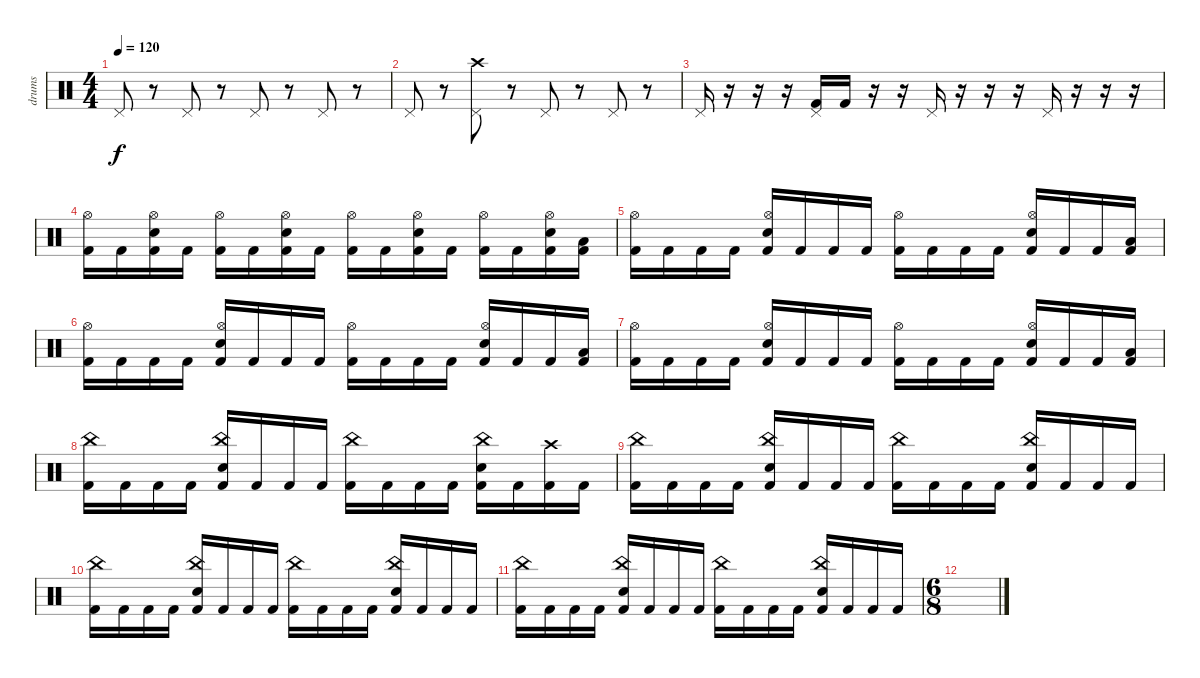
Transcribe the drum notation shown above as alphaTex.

\track ("drums" "drums") {instrument percussion}
\staff {score}
\articulation defaults
\ts (4 4)
\tempo 120
\clef neutral
\ks c "Pedal Hi-Hat (hit)".8{dy f}
r.8 "Pedal Hi-Hat (hit)".8 r.8 "Pedal Hi-Hat (hit)".8 r.8 "Pedal Hi-Hat (hit)".8 r.8 |
"Pedal Hi-Hat (hit)".8 r.8 ("Crash high (hit)" "Pedal Hi-Hat (hit)").8 r.8 "Pedal Hi-Hat (hit)".8 r.8 "Pedal Hi-Hat (hit)".8 r.8 |
"Pedal Hi-Hat (hit)".16 r.16 r.16 r.16 ("Pedal Hi-Hat (hit)" "Kick (hit) 2").16 "Kick (hit) 2".16 r.16 r.16 "Pedal Hi-Hat (hit)".16 r.16 r.16 r.16 "Pedal Hi-Hat (hit)".16 r.16 r.16 r.16 |
("Hi-Hat (open)" "Kick (hit) 2").16 "Kick (hit) 2".16 ("Hi-Hat (open)" "Snare (hit) 2" "Kick (hit) 2").16 "Kick (hit) 2".16 ("Hi-Hat (open)" "Kick (hit) 2").16 "Kick (hit) 2".16 ("Hi-Hat (open)" "Snare (hit) 2" "Kick (hit) 2").16 "Kick (hit) 2".16 ("Hi-Hat (open)" "Kick (hit) 2").16 "Kick (hit) 2".16 ("Hi-Hat (open)" "Snare (hit) 2" "Kick (hit) 2").16 "Kick (hit) 2".16 ("Hi-Hat (open)" "Kick (hit) 2").16 "Kick (hit) 2".16 ("Hi-Hat (open)" "Snare (hit) 2" "Kick (hit) 2").16 ("Low Floor Tom (hit)" "Kick (hit) 2").16 |
("Hi-Hat (open)" "Kick (hit) 2").16 "Kick (hit) 2".16 "Kick (hit) 2".16 "Kick (hit) 2".16 ("Hi-Hat (open)" "Snare (hit) 2" "Kick (hit) 2").16 "Kick (hit) 2".16 "Kick (hit) 2".16 "Kick (hit) 2".16 ("Hi-Hat (open)" "Kick (hit) 2").16 "Kick (hit) 2".16 "Kick (hit) 2".16 "Kick (hit) 2".16 ("Hi-Hat (open)" "Snare (hit) 2" "Kick (hit) 2").16 "Kick (hit) 2".16 "Kick (hit) 2".16 ("Low Floor Tom (hit)" "Kick (hit) 2").16 |
("Hi-Hat (open)" "Kick (hit) 2").16 "Kick (hit) 2".16 "Kick (hit) 2".16 "Kick (hit) 2".16 ("Hi-Hat (open)" "Snare (hit) 2" "Kick (hit) 2").16 "Kick (hit) 2".16 "Kick (hit) 2".16 "Kick (hit) 2".16 ("Hi-Hat (open)" "Kick (hit) 2").16 "Kick (hit) 2".16 "Kick (hit) 2".16 "Kick (hit) 2".16 ("Hi-Hat (open)" "Snare (hit) 2" "Kick (hit) 2").16 "Kick (hit) 2".16 "Kick (hit) 2".16 ("Low Floor Tom (hit)" "Kick (hit) 2").16 |
("Hi-Hat (open)" "Kick (hit) 2").16 "Kick (hit) 2".16 "Kick (hit) 2".16 "Kick (hit) 2".16 ("Hi-Hat (open)" "Snare (hit) 2" "Kick (hit) 2").16 "Kick (hit) 2".16 "Kick (hit) 2".16 "Kick (hit) 2".16 ("Hi-Hat (open)" "Kick (hit) 2").16 "Kick (hit) 2".16 "Kick (hit) 2".16 "Kick (hit) 2".16 ("Hi-Hat (open)" "Snare (hit) 2" "Kick (hit) 2").16 "Kick (hit) 2".16 "Kick (hit) 2".16 ("Low Floor Tom (hit)" "Kick (hit) 2").16 |
("China (hit)" "Kick (hit) 2").16 "Kick (hit) 2".16 "Kick (hit) 2".16 "Kick (hit) 2".16 ("China (hit)" "Electric Snare (hit)" "Kick (hit) 2").16 "Kick (hit) 2".16 "Kick (hit) 2".16 "Kick (hit) 2".16 ("China (hit)" "Kick (hit) 2").16 "Kick (hit) 2".16 "Kick (hit) 2".16 "Kick (hit) 2".16 ("China (hit)" "Electric Snare (hit)" "Kick (hit) 2").16 "Kick (hit) 2".16 ("Crash high (hit)" "Kick (hit) 2").16 "Kick (hit) 2".16 |
("China (hit)" "Kick (hit) 2").16 "Kick (hit) 2".16 "Kick (hit) 2".16 "Kick (hit) 2".16 ("China (hit)" "Electric Snare (hit)" "Kick (hit) 2").16 "Kick (hit) 2".16 "Kick (hit) 2".16 "Kick (hit) 2".16 ("China (hit)" "Kick (hit) 2").16 "Kick (hit) 2".16 "Kick (hit) 2".16 "Kick (hit) 2".16 ("China (hit)" "Electric Snare (hit)" "Kick (hit) 2").16 "Kick (hit) 2".16 "Kick (hit) 2".16 "Kick (hit) 2".16 |
("China (hit)" "Kick (hit) 2").16 "Kick (hit) 2".16 "Kick (hit) 2".16 "Kick (hit) 2".16 ("China (hit)" "Electric Snare (hit)" "Kick (hit) 2").16 "Kick (hit) 2".16 "Kick (hit) 2".16 "Kick (hit) 2".16 ("China (hit)" "Kick (hit) 2").16 "Kick (hit) 2".16 "Kick (hit) 2".16 "Kick (hit) 2".16 ("China (hit)" "Electric Snare (hit)" "Kick (hit) 2").16 "Kick (hit) 2".16 "Kick (hit) 2".16 "Kick (hit) 2".16 |
("China (hit)" "Kick (hit) 2").16 "Kick (hit) 2".16 "Kick (hit) 2".16 "Kick (hit) 2".16 ("China (hit)" "Electric Snare (hit)" "Kick (hit) 2").16 "Kick (hit) 2".16 "Kick (hit) 2".16 "Kick (hit) 2".16 ("China (hit)" "Kick (hit) 2").16 "Kick (hit) 2".16 "Kick (hit) 2".16 "Kick (hit) 2".16 ("China (hit)" "Electric Snare (hit)" "Kick (hit) 2").16 "Kick (hit) 2".16 "Kick (hit) 2".16 "Kick (hit) 2".16 |
\ts (6 8)
